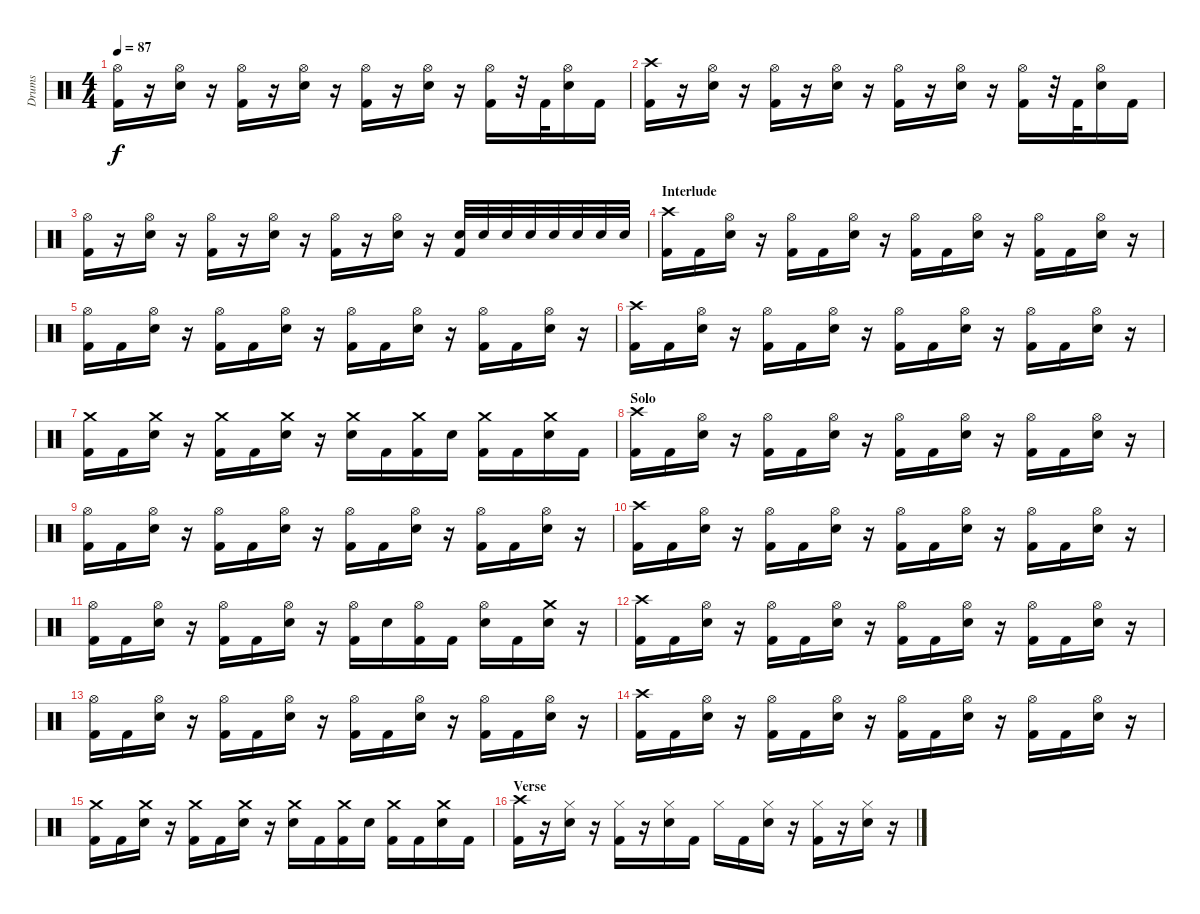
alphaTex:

\track ("Drums" "Drums") {instrument percussion}
\staff {score}
\articulation defaults
\ts (4 4)
\tempo 87
\clef neutral
\ks c
("Hi-Hat (open)" "Kick (hit) 2").16{dy f} r.16 ("Hi-Hat (open)" "Electric Snare (hit)").16 r.16 ("Hi-Hat (open)" "Kick (hit) 2").16 r.16 ("Hi-Hat (open)" "Electric Snare (hit)").16 r.16 ("Hi-Hat (open)" "Kick (hit) 2").16 r.16 ("Hi-Hat (open)" "Electric Snare (hit)").16 r.16 ("Hi-Hat (open)" "Kick (hit) 2").16 r.32 "Kick (hit) 2".32 ("Hi-Hat (open)" "Electric Snare (hit)").16 "Kick (hit) 2".16 |
("Crash high (hit)" "Kick (hit) 2").16 r.16 ("Hi-Hat (open)" "Electric Snare (hit)").16 r.16 ("Hi-Hat (open)" "Kick (hit) 2").16 r.16 ("Hi-Hat (open)" "Electric Snare (hit)").16 r.16 ("Hi-Hat (open)" "Kick (hit) 2").16 r.16 ("Hi-Hat (open)" "Electric Snare (hit)").16 r.16 ("Hi-Hat (open)" "Kick (hit) 2").16 r.32 "Kick (hit) 2".32 ("Hi-Hat (open)" "Electric Snare (hit)").16 "Kick (hit) 2".16 |
("Hi-Hat (open)" "Kick (hit) 2").16 r.16 ("Hi-Hat (open)" "Electric Snare (hit)").16 r.16 ("Hi-Hat (open)" "Kick (hit) 2").16 r.16 ("Hi-Hat (open)" "Electric Snare (hit)").16 r.16 ("Hi-Hat (open)" "Kick (hit) 2").16 r.16 ("Hi-Hat (open)" "Electric Snare (hit)").16 r.16 ("Electric Snare (hit)" "Kick (hit) 2").32 "Electric Snare (hit)".32 "Electric Snare (hit)".32 "Electric Snare (hit)".32 "Electric Snare (hit)".32 "Electric Snare (hit)".32 "Electric Snare (hit)".32 "Electric Snare (hit)".32 |
\section ("" "Interlude")
("Crash high (hit)" "Kick (hit) 2").16 "Kick (hit) 2".16 ("Hi-Hat (open)" "Electric Snare (hit)").16 r.16 ("Hi-Hat (open)" "Kick (hit) 2").16 "Kick (hit) 2".16 ("Hi-Hat (open)" "Electric Snare (hit)").16 r.16 ("Hi-Hat (open)" "Kick (hit) 2").16 "Kick (hit) 2".16 ("Hi-Hat (open)" "Electric Snare (hit)").16 r.16 ("Hi-Hat (open)" "Kick (hit) 2").16 "Kick (hit) 2".16 ("Hi-Hat (open)" "Electric Snare (hit)").16 r.16 |
("Hi-Hat (open)" "Kick (hit) 2").16 "Kick (hit) 2".16 ("Hi-Hat (open)" "Electric Snare (hit)").16 r.16 ("Hi-Hat (open)" "Kick (hit) 2").16 "Kick (hit) 2".16 ("Hi-Hat (open)" "Electric Snare (hit)").16 r.16 ("Hi-Hat (open)" "Kick (hit) 2").16 "Kick (hit) 2".16 ("Hi-Hat (open)" "Electric Snare (hit)").16 r.16 ("Hi-Hat (open)" "Kick (hit) 2").16 "Kick (hit) 2".16 ("Hi-Hat (open)" "Electric Snare (hit)").16 r.16 |
("Crash high (hit)" "Kick (hit) 2").16 "Kick (hit) 2".16 ("Hi-Hat (open)" "Electric Snare (hit)").16 r.16 ("Hi-Hat (open)" "Kick (hit) 2").16 "Kick (hit) 2".16 ("Hi-Hat (open)" "Electric Snare (hit)").16 r.16 ("Hi-Hat (open)" "Kick (hit) 2").16 "Kick (hit) 2".16 ("Hi-Hat (open)" "Electric Snare (hit)").16 r.16 ("Hi-Hat (open)" "Kick (hit) 2").16 "Kick (hit) 2".16 ("Hi-Hat (open)" "Electric Snare (hit)").16 r.16 |
("Crash medium (hit)" "Kick (hit) 2").16 "Kick (hit) 2".16 ("Crash medium (hit)" "Electric Snare (hit)").16 r.16 ("Crash medium (hit)" "Kick (hit) 2").16 "Kick (hit) 2".16 ("Crash medium (hit)" "Electric Snare (hit)").16 r.16 ("Crash medium (hit)" "Electric Snare (hit)").16 "Kick (hit) 2".16 ("Crash medium (hit)" "Kick (hit) 2").16 "Electric Snare (hit)".16 ("Crash medium (hit)" "Kick (hit) 2").16 "Kick (hit) 2".16 ("Crash medium (hit)" "Electric Snare (hit)").16 "Kick (hit) 2".16 |
\section ("" "Solo")
("Crash high (hit)" "Kick (hit) 2").16 "Kick (hit) 2".16 ("Hi-Hat (open)" "Electric Snare (hit)").16 r.16 ("Hi-Hat (open)" "Kick (hit) 2").16 "Kick (hit) 2".16 ("Hi-Hat (open)" "Electric Snare (hit)").16 r.16 ("Hi-Hat (open)" "Kick (hit) 2").16 "Kick (hit) 2".16 ("Hi-Hat (open)" "Electric Snare (hit)").16 r.16 ("Hi-Hat (open)" "Kick (hit) 2").16 "Kick (hit) 2".16 ("Hi-Hat (open)" "Electric Snare (hit)").16 r.16 |
("Hi-Hat (open)" "Kick (hit) 2").16 "Kick (hit) 2".16 ("Hi-Hat (open)" "Electric Snare (hit)").16 r.16 ("Hi-Hat (open)" "Kick (hit) 2").16 "Kick (hit) 2".16 ("Hi-Hat (open)" "Electric Snare (hit)").16 r.16 ("Hi-Hat (open)" "Kick (hit) 2").16 "Kick (hit) 2".16 ("Hi-Hat (open)" "Electric Snare (hit)").16 r.16 ("Hi-Hat (open)" "Kick (hit) 2").16 "Kick (hit) 2".16 ("Hi-Hat (open)" "Electric Snare (hit)").16 r.16 |
("Crash high (hit)" "Kick (hit) 2").16 "Kick (hit) 2".16 ("Hi-Hat (open)" "Electric Snare (hit)").16 r.16 ("Hi-Hat (open)" "Kick (hit) 2").16 "Kick (hit) 2".16 ("Hi-Hat (open)" "Electric Snare (hit)").16 r.16 ("Hi-Hat (open)" "Kick (hit) 2").16 "Kick (hit) 2".16 ("Hi-Hat (open)" "Electric Snare (hit)").16 r.16 ("Hi-Hat (open)" "Kick (hit) 2").16 "Kick (hit) 2".16 ("Hi-Hat (open)" "Electric Snare (hit)").16 r.16 |
("Hi-Hat (open)" "Kick (hit) 2").16 "Kick (hit) 2".16 ("Hi-Hat (open)" "Electric Snare (hit)").16 r.16 ("Hi-Hat (open)" "Kick (hit) 2").16 "Kick (hit) 2".16 ("Hi-Hat (open)" "Electric Snare (hit)").16 r.16 ("Hi-Hat (open)" "Kick (hit) 2").16 "Electric Snare (hit)".16 ("Hi-Hat (open)" "Kick (hit) 2").16 "Kick (hit) 2".16 ("Hi-Hat (open)" "Electric Snare (hit)").16 "Kick (hit) 2".16 ("Crash medium (hit)" "Electric Snare (hit)").16 r.16 |
("Crash high (hit)" "Kick (hit) 2").16 "Kick (hit) 2".16 ("Hi-Hat (open)" "Electric Snare (hit)").16 r.16 ("Hi-Hat (open)" "Kick (hit) 2").16 "Kick (hit) 2".16 ("Hi-Hat (open)" "Electric Snare (hit)").16 r.16 ("Hi-Hat (open)" "Kick (hit) 2").16 "Kick (hit) 2".16 ("Hi-Hat (open)" "Electric Snare (hit)").16 r.16 ("Hi-Hat (open)" "Kick (hit) 2").16 "Kick (hit) 2".16 ("Hi-Hat (open)" "Electric Snare (hit)").16 r.16 |
("Hi-Hat (open)" "Kick (hit) 2").16 "Kick (hit) 2".16 ("Hi-Hat (open)" "Electric Snare (hit)").16 r.16 ("Hi-Hat (open)" "Kick (hit) 2").16 "Kick (hit) 2".16 ("Hi-Hat (open)" "Electric Snare (hit)").16 r.16 ("Hi-Hat (open)" "Kick (hit) 2").16 "Kick (hit) 2".16 ("Hi-Hat (open)" "Electric Snare (hit)").16 r.16 ("Hi-Hat (open)" "Kick (hit) 2").16 "Kick (hit) 2".16 ("Hi-Hat (open)" "Electric Snare (hit)").16 r.16 |
("Crash high (hit)" "Kick (hit) 2").16 "Kick (hit) 2".16 ("Hi-Hat (open)" "Electric Snare (hit)").16 r.16 ("Hi-Hat (open)" "Kick (hit) 2").16 "Kick (hit) 2".16 ("Hi-Hat (open)" "Electric Snare (hit)").16 r.16 ("Hi-Hat (open)" "Kick (hit) 2").16 "Kick (hit) 2".16 ("Hi-Hat (open)" "Electric Snare (hit)").16 r.16 ("Hi-Hat (open)" "Kick (hit) 2").16 "Kick (hit) 2".16 ("Hi-Hat (open)" "Electric Snare (hit)").16 r.16 |
("Crash medium (hit)" "Kick (hit) 2").16 "Kick (hit) 2".16 ("Crash medium (hit)" "Electric Snare (hit)").16 r.16 ("Crash medium (hit)" "Kick (hit) 2").16 "Kick (hit) 2".16 ("Crash medium (hit)" "Electric Snare (hit)").16 r.16 ("Crash medium (hit)" "Electric Snare (hit)").16 "Kick (hit) 2".16 ("Crash medium (hit)" "Kick (hit) 2").16 "Electric Snare (hit)".16 ("Crash medium (hit)" "Kick (hit) 2").16 "Kick (hit) 2".16 ("Crash medium (hit)" "Electric Snare (hit)").16 "Kick (hit) 2".16 |
\section ("" "Verse")
("Crash high (hit)" "Kick (hit) 2").16 r.16 ("Hi-Hat (closed)" "Electric Snare (hit)").16 r.16 ("Hi-Hat (closed)" "Kick (hit) 2").16 r.16 ("Hi-Hat (closed)" "Electric Snare (hit)").16 "Kick (hit) 2".16 "Hi-Hat (closed)".16 "Kick (hit) 2".16 ("Hi-Hat (closed)" "Electric Snare (hit)").16 r.16 ("Hi-Hat (closed)" "Kick (hit) 2").16 r.16 ("Hi-Hat (closed)" "Electric Snare (hit)").16 r.16
